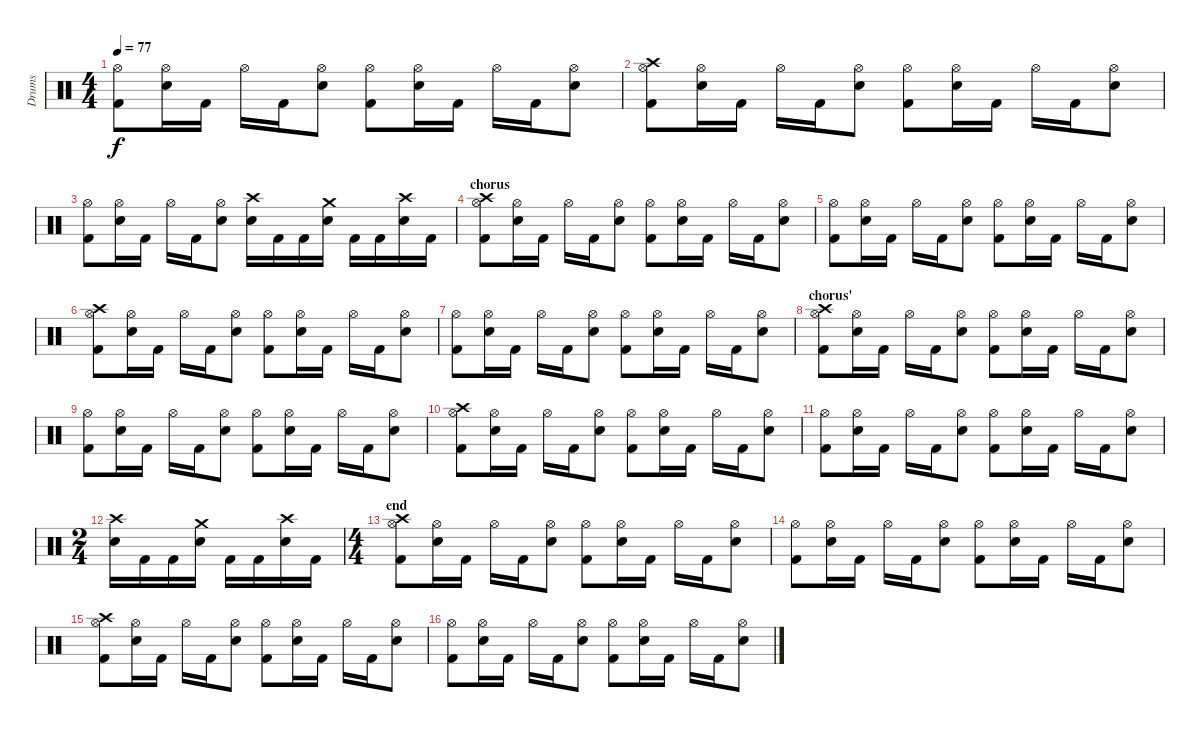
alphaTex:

\track ("Drums" "Drums") {instrument percussion}
\staff {score}
\articulation defaults
\ts (4 4)
\tempo 77
\clef neutral
\ks c
("Hi-Hat (open)" "Kick (hit) 2").8{dy f} ("Hi-Hat (open)" "Snare (hit) 2").16 "Kick (hit) 2".16 "Hi-Hat (open)".16 "Kick (hit) 2".16 ("Hi-Hat (open)" "Snare (hit) 2").8 ("Hi-Hat (open)" "Kick (hit) 2").8 ("Hi-Hat (open)" "Snare (hit) 2").16 "Kick (hit) 2".16 "Hi-Hat (open)".16 "Kick (hit) 2".16 ("Hi-Hat (open)" "Snare (hit) 2").8 |
("Crash high (hit)" "Hi-Hat (open)" "Kick (hit) 2").8 ("Hi-Hat (open)" "Snare (hit) 2").16 "Kick (hit) 2".16 "Hi-Hat (open)".16 "Kick (hit) 2".16 ("Hi-Hat (open)" "Snare (hit) 2").8 ("Hi-Hat (open)" "Kick (hit) 2").8 ("Hi-Hat (open)" "Snare (hit) 2").16 "Kick (hit) 2".16 "Hi-Hat (open)".16 "Kick (hit) 2".16 ("Hi-Hat (open)" "Snare (hit) 2").8 |
("Hi-Hat (open)" "Kick (hit) 2").8 ("Hi-Hat (open)" "Snare (hit) 2").16 "Kick (hit) 2".16 "Hi-Hat (open)".16 "Kick (hit) 2".16 ("Hi-Hat (open)" "Snare (hit) 2").8 ("Crash high (hit)" "Snare (hit) 2").16 "Kick (hit) 2".16 "Kick (hit) 2".16 ("Crash medium (hit)" "Snare (hit) 2").16 "Kick (hit) 2".16 "Kick (hit) 2".16 ("Crash high (hit)" "Snare (hit) 2").16 "Kick (hit) 2".16 |
\section ("" "chorus")
("Crash high (hit)" "Hi-Hat (open)" "Kick (hit) 2").8 ("Hi-Hat (open)" "Snare (hit) 2").16 "Kick (hit) 2".16 "Hi-Hat (open)".16 "Kick (hit) 2".16 ("Hi-Hat (open)" "Snare (hit) 2").8 ("Hi-Hat (open)" "Kick (hit) 2").8 ("Hi-Hat (open)" "Snare (hit) 2").16 "Kick (hit) 2".16 "Hi-Hat (open)".16 "Kick (hit) 2".16 ("Hi-Hat (open)" "Snare (hit) 2").8 |
("Hi-Hat (open)" "Kick (hit) 2").8 ("Hi-Hat (open)" "Snare (hit) 2").16 "Kick (hit) 2".16 "Hi-Hat (open)".16 "Kick (hit) 2".16 ("Hi-Hat (open)" "Snare (hit) 2").8 ("Hi-Hat (open)" "Kick (hit) 2").8 ("Hi-Hat (open)" "Snare (hit) 2").16 "Kick (hit) 2".16 "Hi-Hat (open)".16 "Kick (hit) 2".16 ("Hi-Hat (open)" "Snare (hit) 2").8 |
("Crash high (hit)" "Hi-Hat (open)" "Kick (hit) 2").8 ("Hi-Hat (open)" "Snare (hit) 2").16 "Kick (hit) 2".16 "Hi-Hat (open)".16 "Kick (hit) 2".16 ("Hi-Hat (open)" "Snare (hit) 2").8 ("Hi-Hat (open)" "Kick (hit) 2").8 ("Hi-Hat (open)" "Snare (hit) 2").16 "Kick (hit) 2".16 "Hi-Hat (open)".16 "Kick (hit) 2".16 ("Hi-Hat (open)" "Snare (hit) 2").8 |
("Hi-Hat (open)" "Kick (hit) 2").8 ("Hi-Hat (open)" "Snare (hit) 2").16 "Kick (hit) 2".16 "Hi-Hat (open)".16 "Kick (hit) 2".16 ("Hi-Hat (open)" "Snare (hit) 2").8 ("Hi-Hat (open)" "Kick (hit) 2").8 ("Hi-Hat (open)" "Snare (hit) 2").16 "Kick (hit) 2".16 "Hi-Hat (open)".16 "Kick (hit) 2".16 ("Hi-Hat (open)" "Snare (hit) 2").8 |
\section ("" "chorus'")
("Crash high (hit)" "Hi-Hat (open)" "Kick (hit) 2").8 ("Hi-Hat (open)" "Snare (hit) 2").16 "Kick (hit) 2".16 "Hi-Hat (open)".16 "Kick (hit) 2".16 ("Hi-Hat (open)" "Snare (hit) 2").8 ("Hi-Hat (open)" "Kick (hit) 2").8 ("Hi-Hat (open)" "Snare (hit) 2").16 "Kick (hit) 2".16 "Hi-Hat (open)".16 "Kick (hit) 2".16 ("Hi-Hat (open)" "Snare (hit) 2").8 |
("Hi-Hat (open)" "Kick (hit) 2").8 ("Hi-Hat (open)" "Snare (hit) 2").16 "Kick (hit) 2".16 "Hi-Hat (open)".16 "Kick (hit) 2".16 ("Hi-Hat (open)" "Snare (hit) 2").8 ("Hi-Hat (open)" "Kick (hit) 2").8 ("Hi-Hat (open)" "Snare (hit) 2").16 "Kick (hit) 2".16 "Hi-Hat (open)".16 "Kick (hit) 2".16 ("Hi-Hat (open)" "Snare (hit) 2").8 |
("Crash high (hit)" "Hi-Hat (open)" "Kick (hit) 2").8 ("Hi-Hat (open)" "Snare (hit) 2").16 "Kick (hit) 2".16 "Hi-Hat (open)".16 "Kick (hit) 2".16 ("Hi-Hat (open)" "Snare (hit) 2").8 ("Hi-Hat (open)" "Kick (hit) 2").8 ("Hi-Hat (open)" "Snare (hit) 2").16 "Kick (hit) 2".16 "Hi-Hat (open)".16 "Kick (hit) 2".16 ("Hi-Hat (open)" "Snare (hit) 2").8 |
("Hi-Hat (open)" "Kick (hit) 2").8 ("Hi-Hat (open)" "Snare (hit) 2").16 "Kick (hit) 2".16 "Hi-Hat (open)".16 "Kick (hit) 2".16 ("Hi-Hat (open)" "Snare (hit) 2").8 ("Hi-Hat (open)" "Kick (hit) 2").8 ("Hi-Hat (open)" "Snare (hit) 2").16 "Kick (hit) 2".16 "Hi-Hat (open)".16 "Kick (hit) 2".16 ("Hi-Hat (open)" "Snare (hit) 2").8 |
\ts (2 4)
("Crash high (hit)" "Snare (hit) 2").16 "Kick (hit) 2".16 "Kick (hit) 2".16 ("Crash medium (hit)" "Snare (hit) 2").16 "Kick (hit) 2".16 "Kick (hit) 2".16 ("Crash high (hit)" "Snare (hit) 2").16 "Kick (hit) 2".16 |
\ts (4 4)
\section ("" "end")
("Crash high (hit)" "Hi-Hat (open)" "Kick (hit) 2").8 ("Hi-Hat (open)" "Snare (hit) 2").16 "Kick (hit) 2".16 "Hi-Hat (open)".16 "Kick (hit) 2".16 ("Hi-Hat (open)" "Snare (hit) 2").8 ("Hi-Hat (open)" "Kick (hit) 2").8 ("Hi-Hat (open)" "Snare (hit) 2").16 "Kick (hit) 2".16 "Hi-Hat (open)".16 "Kick (hit) 2".16 ("Hi-Hat (open)" "Snare (hit) 2").8 |
("Hi-Hat (open)" "Kick (hit) 2").8 ("Hi-Hat (open)" "Snare (hit) 2").16 "Kick (hit) 2".16 "Hi-Hat (open)".16 "Kick (hit) 2".16 ("Hi-Hat (open)" "Snare (hit) 2").8 ("Hi-Hat (open)" "Kick (hit) 2").8 ("Hi-Hat (open)" "Snare (hit) 2").16 "Kick (hit) 2".16 "Hi-Hat (open)".16 "Kick (hit) 2".16 ("Hi-Hat (open)" "Snare (hit) 2").8 |
("Crash high (hit)" "Hi-Hat (open)" "Kick (hit) 2").8 ("Hi-Hat (open)" "Snare (hit) 2").16 "Kick (hit) 2".16 "Hi-Hat (open)".16 "Kick (hit) 2".16 ("Hi-Hat (open)" "Snare (hit) 2").8 ("Hi-Hat (open)" "Kick (hit) 2").8 ("Hi-Hat (open)" "Snare (hit) 2").16 "Kick (hit) 2".16 "Hi-Hat (open)".16 "Kick (hit) 2".16 ("Hi-Hat (open)" "Snare (hit) 2").8 |
("Hi-Hat (open)" "Kick (hit) 2").8 ("Hi-Hat (open)" "Snare (hit) 2").16 "Kick (hit) 2".16 "Hi-Hat (open)".16 "Kick (hit) 2".16 ("Hi-Hat (open)" "Snare (hit) 2").8 ("Hi-Hat (open)" "Kick (hit) 2").8 ("Hi-Hat (open)" "Snare (hit) 2").16 "Kick (hit) 2".16 "Hi-Hat (open)".16 "Kick (hit) 2".16 ("Hi-Hat (open)" "Snare (hit) 2").8
